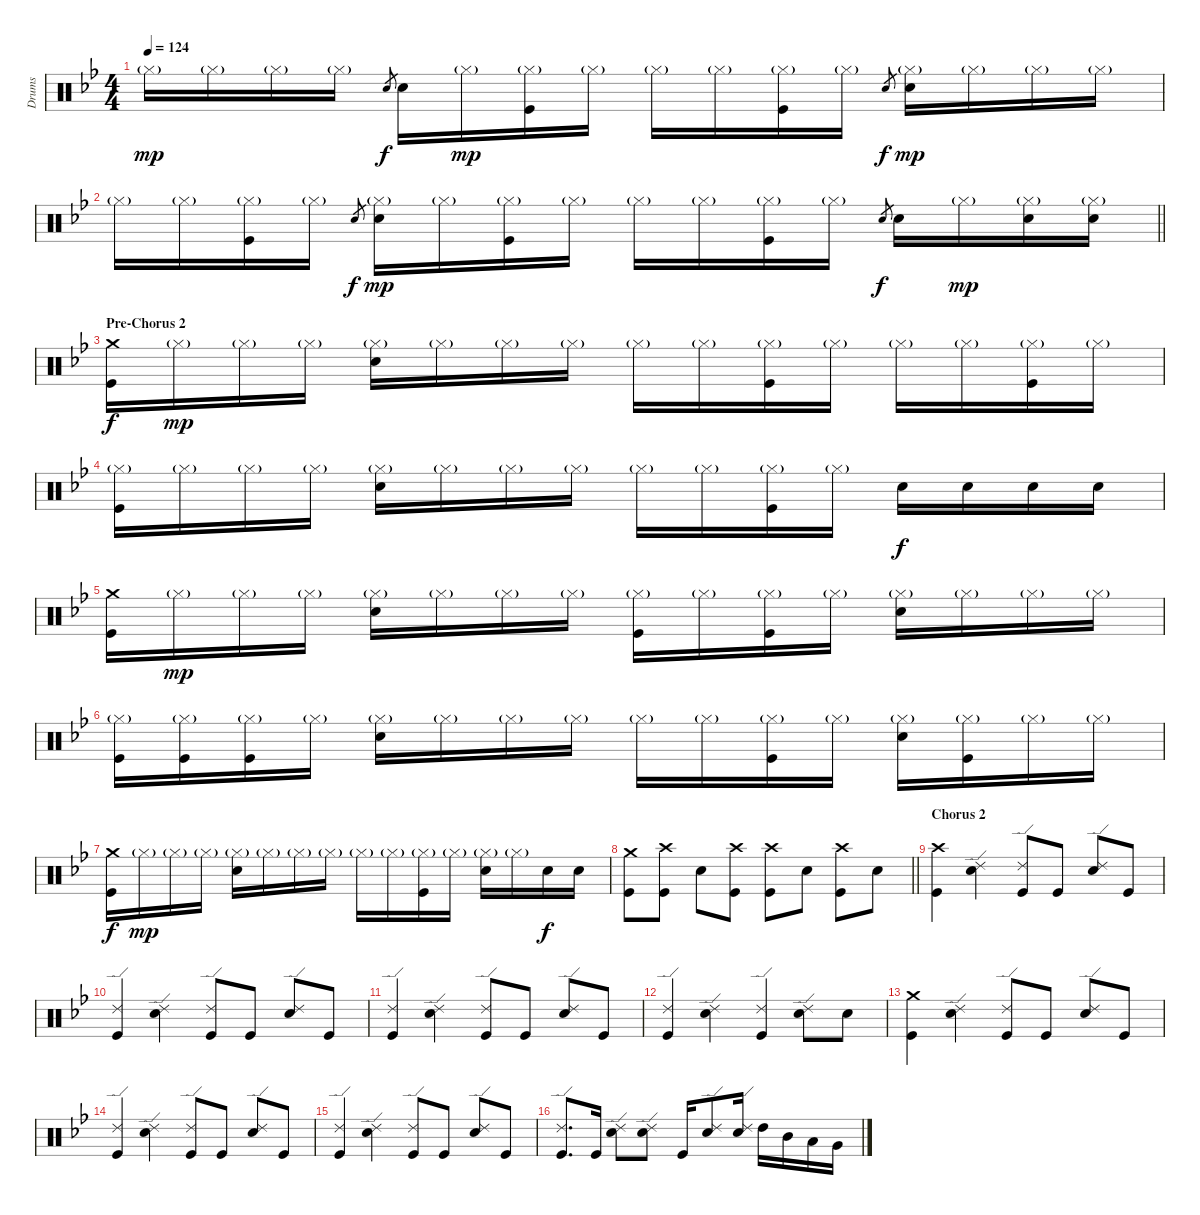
\track ("Drums" "Drums") {instrument percussion}
\staff {score}
\articulation defaults
\ts (4 4)
\tempo 124
\clef neutral
\ks gminor "Hi-Hat (closed)"{g}.16{dy mp} "Hi-Hat (closed)"{g}.16 "Hi-Hat (closed)"{g}.16 "Hi-Hat (closed)"{g}.16 "Snare (hit) 2"{h}.8{gr dy f} "Snare (hit) 2".16 "Hi-Hat (closed)"{g}.16{dy mp}
("Hi-Hat (closed)"{g} "Kick (hit)").16 "Hi-Hat (closed)"{g}.16 "Hi-Hat (closed)"{g}.16 "Hi-Hat (closed)"{g}.16 ("Hi-Hat (closed)"{g} "Kick (hit)").16 "Hi-Hat (closed)"{g}.16 "Snare (hit) 2".8{gr dy f} ("Hi-Hat (closed)"{g} "Snare (hit) 2").16{dy mp} "Hi-Hat (closed)"{g}.16 "Hi-Hat (closed)"{g}.16 "Hi-Hat (closed)"{g}.16 |
\barLineRight lightlight "Hi-Hat (closed)"{g}.16 "Hi-Hat (closed)"{g}.16
("Hi-Hat (closed)"{g} "Kick (hit)").16 "Hi-Hat (closed)"{g}.16 "Snare (hit) 2".8{gr dy f} ("Hi-Hat (closed)"{g} "Snare (hit) 2").16{dy mp} "Hi-Hat (closed)"{g}.16 ("Hi-Hat (closed)"{g} "Kick (hit)").16 "Hi-Hat (closed)"{g}.16 "Hi-Hat (closed)"{g}.16 "Hi-Hat (closed)"{g}.16 ("Hi-Hat (closed)"{g} "Kick (hit)").16 "Hi-Hat (closed)"{g}.16 "Snare (hit) 2".8{gr dy f} "Snare (hit) 2".16 "Hi-Hat (closed)"{g}.16{dy mp} ("Hi-Hat (closed)"{g} "Snare (hit) 2").16 ("Hi-Hat (closed)"{g} "Snare (hit) 2").16 |
\section ("" "Pre-Chorus 2")
("Crash medium (hit)" "Kick (hit)").16{dy f} "Hi-Hat (closed)"{g}.16{dy mp} "Hi-Hat (closed)"{g}.16 "Hi-Hat (closed)"{g}.16 ("Hi-Hat (closed)"{g} "Snare (hit) 2").16 "Hi-Hat (closed)"{g}.16 "Hi-Hat (closed)"{g}.16 "Hi-Hat (closed)"{g}.16 "Hi-Hat (closed)"{g}.16 "Hi-Hat (closed)"{g}.16 ("Hi-Hat (closed)"{g} "Kick (hit)").16 "Hi-Hat (closed)"{g}.16 "Hi-Hat (closed)"{g}.16 "Hi-Hat (closed)"{g}.16 ("Hi-Hat (closed)"{g} "Kick (hit)").16 "Hi-Hat (closed)"{g}.16 |
("Hi-Hat (closed)"{g} "Kick (hit)").16 "Hi-Hat (closed)"{g}.16 "Hi-Hat (closed)"{g}.16 "Hi-Hat (closed)"{g}.16 ("Hi-Hat (closed)"{g} "Snare (hit) 2").16 "Hi-Hat (closed)"{g}.16 "Hi-Hat (closed)"{g}.16 "Hi-Hat (closed)"{g}.16 "Hi-Hat (closed)"{g}.16 "Hi-Hat (closed)"{g}.16 ("Hi-Hat (closed)"{g} "Kick (hit)").16 "Hi-Hat (closed)"{g}.16 "Snare (hit) 2".16{dy f} "Snare (hit) 2".16 "Snare (hit) 2".16 "Snare (hit) 2".16 |
("Crash medium (hit)" "Kick (hit)").16 "Hi-Hat (closed)"{g}.16{dy mp} "Hi-Hat (closed)"{g}.16 "Hi-Hat (closed)"{g}.16 ("Hi-Hat (closed)"{g} "Snare (hit) 2").16 "Hi-Hat (closed)"{g}.16 "Hi-Hat (closed)"{g}.16 "Hi-Hat (closed)"{g}.16 ("Hi-Hat (closed)"{g} "Kick (hit)").16 "Hi-Hat (closed)"{g}.16 ("Hi-Hat (closed)"{g} "Kick (hit)").16 "Hi-Hat (closed)"{g}.16 ("Hi-Hat (closed)"{g} "Snare (hit) 2").16 "Hi-Hat (closed)"{g}.16 "Hi-Hat (closed)"{g}.16 "Hi-Hat (closed)"{g}.16 |
("Hi-Hat (closed)"{g} "Kick (hit)").16 ("Hi-Hat (closed)"{g} "Kick (hit)").16 ("Hi-Hat (closed)"{g} "Kick (hit)").16 "Hi-Hat (closed)"{g}.16 ("Hi-Hat (closed)"{g} "Snare (hit) 2").16 "Hi-Hat (closed)"{g}.16 "Hi-Hat (closed)"{g}.16 "Hi-Hat (closed)"{g}.16 "Hi-Hat (closed)"{g}.16 "Hi-Hat (closed)"{g}.16 ("Hi-Hat (closed)"{g} "Kick (hit)").16 "Hi-Hat (closed)"{g}.16 ("Hi-Hat (closed)"{g} "Snare (hit) 2").16 ("Hi-Hat (closed)"{g} "Kick (hit)").16 "Hi-Hat (closed)"{g}.16 "Hi-Hat (closed)"{g}.16 |
("Crash medium (hit)" "Kick (hit)").16{dy f} "Hi-Hat (closed)"{g}.16{dy mp} "Hi-Hat (closed)"{g}.16 "Hi-Hat (closed)"{g}.16 ("Hi-Hat (closed)"{g} "Snare (hit) 2").16 "Hi-Hat (closed)"{g}.16 "Hi-Hat (closed)"{g}.16 "Hi-Hat (closed)"{g}.16 "Hi-Hat (closed)"{g}.16 "Hi-Hat (closed)"{g}.16 ("Hi-Hat (closed)"{g} "Kick (hit)").16 "Hi-Hat (closed)"{g}.16 ("Hi-Hat (closed)"{g} "Snare (hit) 2").16 "Hi-Hat (closed)"{g}.16 "Snare (hit) 2".16{dy f} "Snare (hit) 2".16 |
\barLineRight lightlight
("Crash medium (hit)" "Kick (hit)").8 ("Crash high (hit)" "Kick (hit)").8 "Snare (hit) 2".8 ("Crash high (hit)" "Kick (hit)").8 ("Crash high (hit)" "Kick (hit)").8 "Snare (hit) 2".8 ("Crash high (hit)" "Kick (hit)").8 "Snare (hit) 2".8 |
\section ("" "Chorus 2")
("Crash high (hit)" "Kick (hit)").4 ("Ride (edge) 2" "Snare (hit) 2").4 ("Ride (edge) 2" "Kick (hit)").8 "Kick (hit)".8 ("Ride (edge) 2" "Snare (hit) 2").8 "Kick (hit)".8 |
("Ride (edge) 2" "Kick (hit)").4 ("Ride (edge) 2" "Snare (hit) 2").4 ("Ride (edge) 2" "Kick (hit)").8 "Kick (hit)".8 ("Ride (edge) 2" "Snare (hit) 2").8 "Kick (hit)".8 |
("Ride (edge) 2" "Kick (hit)").4 ("Ride (edge) 2" "Snare (hit) 2").4 ("Ride (edge) 2" "Kick (hit)").8 "Kick (hit)".8 ("Ride (edge) 2" "Snare (hit) 2").8 "Kick (hit)".8 |
("Ride (edge) 2" "Kick (hit)").4 ("Ride (edge) 2" "Snare (hit) 2").4 ("Ride (edge) 2" "Kick (hit)").4 ("Ride (edge) 2" "Snare (hit) 2").8 "Snare (hit) 2".8 |
("Crash medium (hit)" "Kick (hit)").4 ("Ride (edge) 2" "Snare (hit) 2").4 ("Ride (edge) 2" "Kick (hit)").8 "Kick (hit)".8 ("Ride (edge) 2" "Snare (hit) 2").8 "Kick (hit)".8 |
("Ride (edge) 2" "Kick (hit)").4 ("Ride (edge) 2" "Snare (hit) 2").4 ("Ride (edge) 2" "Kick (hit)").8 "Kick (hit)".8 ("Ride (edge) 2" "Snare (hit) 2").8 "Kick (hit)".8 |
("Ride (edge) 2" "Kick (hit)").4 ("Ride (edge) 2" "Snare (hit) 2").4 ("Ride (edge) 2" "Kick (hit)").8 "Kick (hit)".8 ("Ride (edge) 2" "Snare (hit) 2").8 "Kick (hit)".8 |
("Ride (edge) 2" "Kick (hit)").8{d} "Kick (hit)".16 ("Ride (edge) 2" "Snare (hit) 2").8 ("Ride (edge) 2" "Snare (hit) 2").8 "Kick (hit)".16 ("Ride (edge) 2" "Snare (hit) 2").8 ("Ride (edge) 2" "Snare (hit) 2").16 "High Tom (hit)".16 "Mid Tom (hit)".16 "Low Tom (hit)".16 "Very Low Tom (hit)".16
